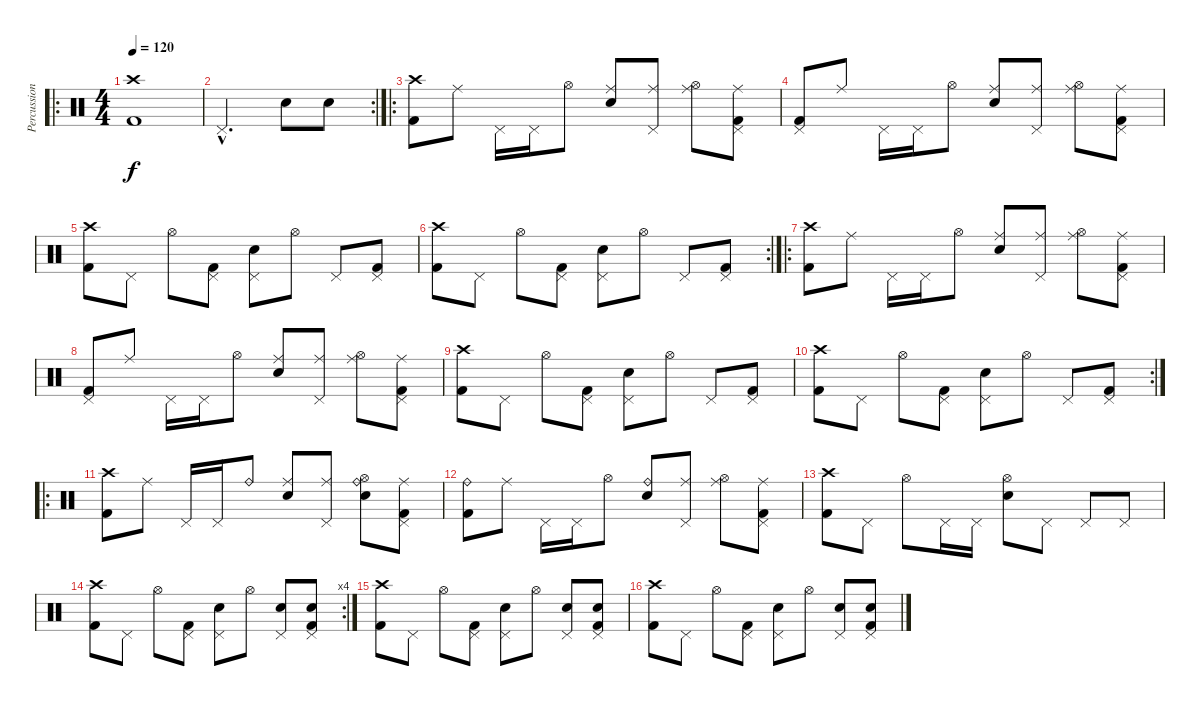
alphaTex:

\track ("Percussion" "Percussion") {instrument percussion}
\staff {score}
\articulation defaults
\ro
\ts (4 4)
\tempo 120
\clef neutral
\ks c
("Kick (hit) 2" "Crash high (hit)").1{dy f} |
\rc 2 "Pedal Hi-Hat (hit)"{hac}.2{d} "Electric Snare (hit)".8 "Electric Snare (hit)".8
|
\ro
("Kick (hit) 2" "Crash high (hit)").8 "Ride (middle)".8 "Pedal Hi-Hat (hit)".16 "Pedal Hi-Hat (hit)".16 "Hi-Hat (open)".8 ("Electric Snare (hit)" "Ride (middle)").8 ("Ride (middle)" "Pedal Hi-Hat (hit)").8 ("Ride (middle)" "Hi-Hat (open)").8 ("Kick (hit) 2" "Ride (middle)" "Pedal Hi-Hat (hit)").8 |
("Kick (hit) 2" "Pedal Hi-Hat (hit)").8 "Ride (middle)".8 "Pedal Hi-Hat (hit)".16 "Pedal Hi-Hat (hit)".16 "Hi-Hat (open)".8 ("Electric Snare (hit)" "Ride (middle)").8 ("Ride (middle)" "Pedal Hi-Hat (hit)").8 ("Ride (middle)" "Hi-Hat (open)").8 ("Kick (hit) 2" "Ride (middle)" "Pedal Hi-Hat (hit)").8 |
("Kick (hit) 2" "Crash high (hit)").8 "Pedal Hi-Hat (hit)".8 "Hi-Hat (open)".8 ("Kick (hit) 2" "Pedal Hi-Hat (hit)").8 ("Electric Snare (hit)" "Pedal Hi-Hat (hit)").8 "Hi-Hat (open)".8 "Pedal Hi-Hat (hit)".8 ("Kick (hit) 2" "Pedal Hi-Hat (hit)").8 |
\rc 2
("Kick (hit) 2" "Crash high (hit)").8 "Pedal Hi-Hat (hit)".8 "Hi-Hat (open)".8 ("Kick (hit) 2" "Pedal Hi-Hat (hit)").8 ("Electric Snare (hit)" "Pedal Hi-Hat (hit)").8 "Hi-Hat (open)".8 "Pedal Hi-Hat (hit)".8 ("Kick (hit) 2" "Pedal Hi-Hat (hit)").8 |
\ro
("Kick (hit) 2" "Crash high (hit)").8 "Ride (middle)".8 "Pedal Hi-Hat (hit)".16 "Pedal Hi-Hat (hit)".16 "Hi-Hat (open)".8 ("Electric Snare (hit)" "Ride (middle)").8 ("Ride (middle)" "Pedal Hi-Hat (hit)").8 ("Ride (middle)" "Hi-Hat (open)").8 ("Kick (hit) 2" "Ride (middle)" "Pedal Hi-Hat (hit)").8 |
("Kick (hit) 2" "Pedal Hi-Hat (hit)").8 "Ride (middle)".8 "Pedal Hi-Hat (hit)".16 "Pedal Hi-Hat (hit)".16 "Hi-Hat (open)".8 ("Electric Snare (hit)" "Ride (middle)").8 ("Ride (middle)" "Pedal Hi-Hat (hit)").8 ("Ride (middle)" "Hi-Hat (open)").8 ("Kick (hit) 2" "Ride (middle)" "Pedal Hi-Hat (hit)").8 |
("Kick (hit) 2" "Crash high (hit)").8 "Pedal Hi-Hat (hit)".8 "Hi-Hat (open)".8 ("Kick (hit) 2" "Pedal Hi-Hat (hit)").8 ("Electric Snare (hit)" "Pedal Hi-Hat (hit)").8 "Hi-Hat (open)".8 "Pedal Hi-Hat (hit)".8 ("Kick (hit) 2" "Pedal Hi-Hat (hit)").8 |
\rc 2
("Kick (hit) 2" "Crash high (hit)").8 "Pedal Hi-Hat (hit)".8 "Hi-Hat (open)".8 ("Kick (hit) 2" "Pedal Hi-Hat (hit)").8 ("Electric Snare (hit)" "Pedal Hi-Hat (hit)").8 "Hi-Hat (open)".8 "Pedal Hi-Hat (hit)".8 ("Kick (hit) 2" "Pedal Hi-Hat (hit)").8 |
\ro
("Kick (hit) 2" "Crash high (hit)").8 "Ride (middle)".8 "Pedal Hi-Hat (hit)".16 "Pedal Hi-Hat (hit)".16 "Ride (bell)".8 ("Electric Snare (hit)" "Ride (middle)").8 ("Ride (middle)" "Pedal Hi-Hat (hit)").8 ("Electric Snare (hit)" "Ride (bell)" "Hi-Hat (open)").8 ("Kick (hit) 2" "Ride (middle)" "Pedal Hi-Hat (hit)").8 |
("Kick (hit) 2" "Ride (bell)").8 "Ride (middle)".8 "Pedal Hi-Hat (hit)".16 "Pedal Hi-Hat (hit)".16 "Hi-Hat (open)".8 ("Electric Snare (hit)" "Ride (bell)").8 ("Ride (middle)" "Pedal Hi-Hat (hit)").8 ("Ride (middle)" "Hi-Hat (open)").8 ("Kick (hit) 2" "Ride (middle)" "Pedal Hi-Hat (hit)").8 |
("Kick (hit) 2" "Crash high (hit)").8 "Pedal Hi-Hat (hit)".8 "Hi-Hat (open)".8 "Pedal Hi-Hat (hit)".16 "Pedal Hi-Hat (hit)".16 ("Electric Snare (hit)" "Hi-Hat (open)").8 "Pedal Hi-Hat (hit)".8 "Pedal Hi-Hat (hit)".8 "Pedal Hi-Hat (hit)".8 |
\rc 4
("Kick (hit) 2" "Crash high (hit)").8 "Pedal Hi-Hat (hit)".8 "Hi-Hat (open)".8 ("Kick (hit) 2" "Pedal Hi-Hat (hit)").8 ("Electric Snare (hit)" "Pedal Hi-Hat (hit)").8 "Hi-Hat (open)".8 ("Electric Snare (hit)" "Pedal Hi-Hat (hit)").8 ("Kick (hit) 2" "Electric Snare (hit)" "Pedal Hi-Hat (hit)").8 |
("Kick (hit) 2" "Crash high (hit)").8 "Pedal Hi-Hat (hit)".8 "Hi-Hat (open)".8 ("Kick (hit) 2" "Pedal Hi-Hat (hit)").8 ("Electric Snare (hit)" "Pedal Hi-Hat (hit)").8 "Hi-Hat (open)".8 ("Electric Snare (hit)" "Pedal Hi-Hat (hit)").8 ("Kick (hit) 2" "Electric Snare (hit)" "Pedal Hi-Hat (hit)").8 |
("Kick (hit) 2" "Crash high (hit)").8 "Pedal Hi-Hat (hit)".8 "Hi-Hat (open)".8 ("Kick (hit) 2" "Pedal Hi-Hat (hit)").8 ("Electric Snare (hit)" "Pedal Hi-Hat (hit)").8 "Hi-Hat (open)".8 ("Electric Snare (hit)" "Pedal Hi-Hat (hit)").8 ("Kick (hit) 2" "Electric Snare (hit)" "Pedal Hi-Hat (hit)").8
